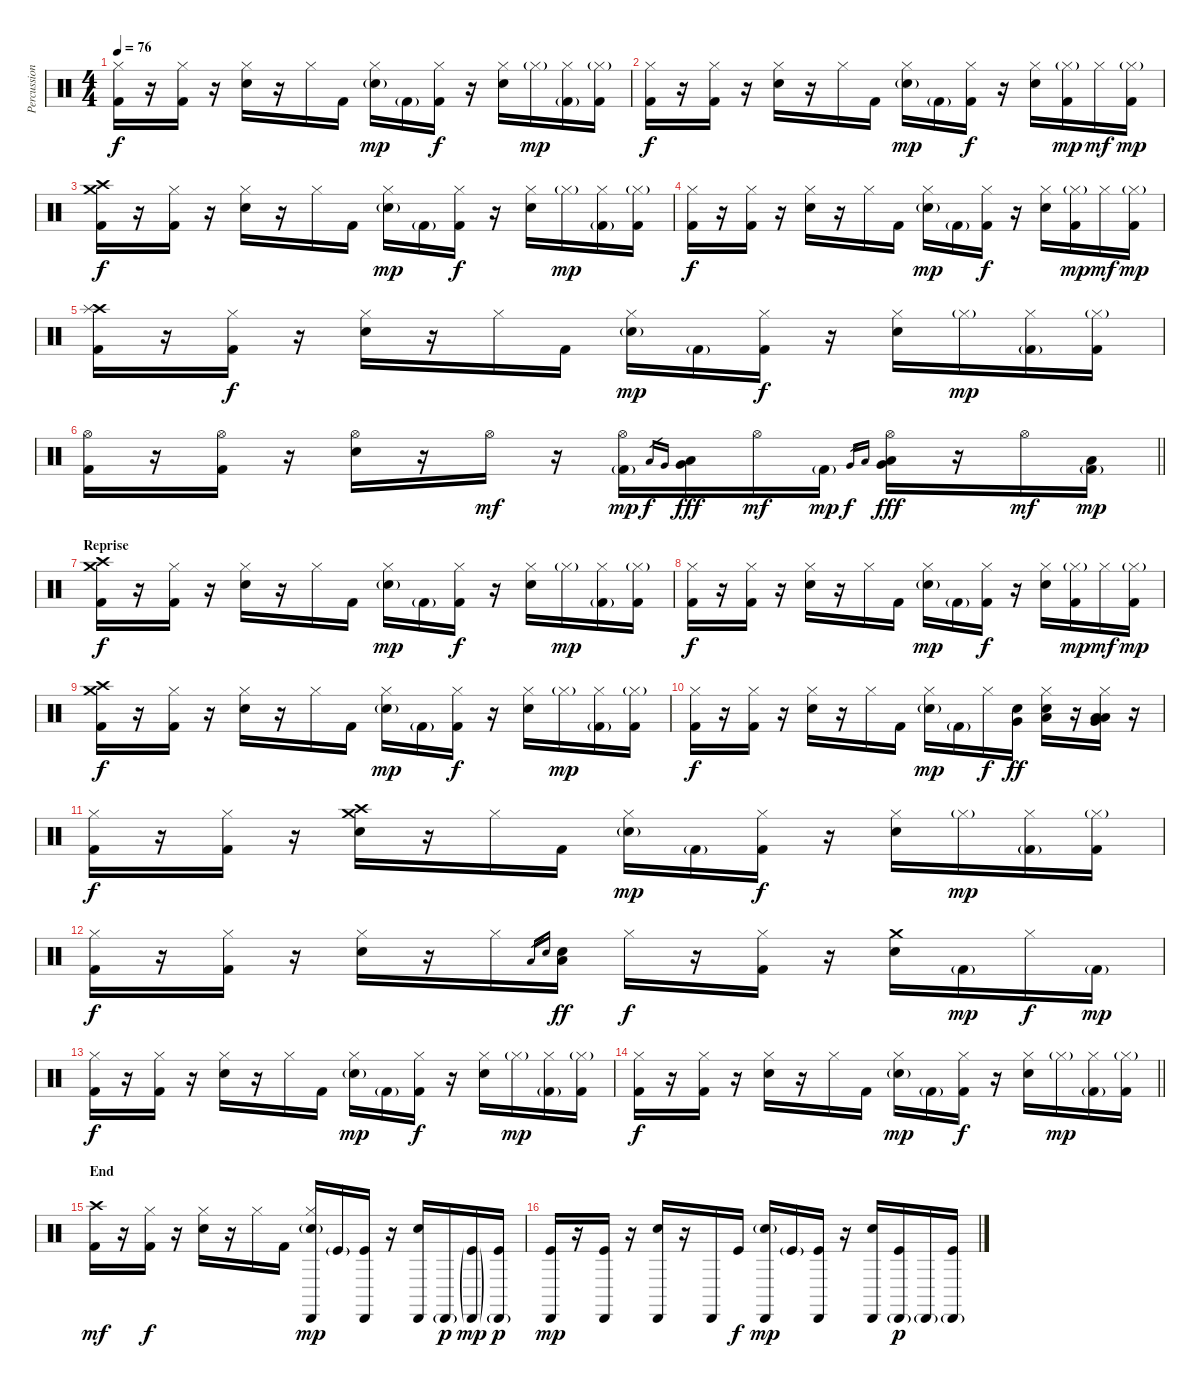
\track ("Percussion" "Percussion") {instrument percussion}
\staff {score}
\articulation defaults
\ts (4 4)
\tempo 76
\clef neutral
\ks c
("Hi-Hat (closed)" "Kick (hit) 2").16{dy f} r.16 ("Hi-Hat (closed)" "Kick (hit) 2").16 r.16 ("Hi-Hat (closed)" "Electric Snare (hit)").16 r.16 "Hi-Hat (closed)".16 "Kick (hit) 2".16 ("Hi-Hat (closed)" "Electric Snare (hit)"{g}).16{dy mp} "Kick (hit) 2"{g}.16 ("Hi-Hat (closed)" "Kick (hit) 2").16{dy f} r.16 ("Hi-Hat (closed)" "Electric Snare (hit)").16 "Hi-Hat (closed)"{g}.16{dy mp} ("Hi-Hat (closed)" "Kick (hit) 2"{g}).16 ("Hi-Hat (closed)"{g} "Kick (hit) 2").16 |
("Hi-Hat (closed)" "Kick (hit) 2").16{dy f} r.16 ("Hi-Hat (closed)" "Kick (hit) 2").16 r.16 ("Hi-Hat (closed)" "Electric Snare (hit)").16 r.16 "Hi-Hat (closed)".16 "Kick (hit) 2".16 ("Hi-Hat (closed)" "Electric Snare (hit)"{g}).16{dy mp} "Kick (hit) 2"{g}.16 ("Hi-Hat (closed)" "Kick (hit) 2").16{dy f} r.16 ("Hi-Hat (closed)" "Electric Snare (hit)").16 ("Hi-Hat (closed)"{g} "Kick (hit) 2").16{dy mp} "Hi-Hat (closed)".16{dy mf} ("Hi-Hat (closed)"{g} "Kick (hit) 2").16{dy mp} |
("Crash high (hit)" "Crash medium (hit)" "Kick (hit) 2").16{dy f} r.16 ("Hi-Hat (closed)" "Kick (hit) 2").16 r.16 ("Hi-Hat (closed)" "Electric Snare (hit)").16 r.16 "Hi-Hat (closed)".16 "Kick (hit) 2".16 ("Hi-Hat (closed)" "Electric Snare (hit)"{g}).16{dy mp} "Kick (hit) 2"{g}.16 ("Hi-Hat (closed)" "Kick (hit) 2").16{dy f} r.16 ("Hi-Hat (closed)" "Electric Snare (hit)").16 "Hi-Hat (closed)"{g}.16{dy mp} ("Hi-Hat (closed)" "Kick (hit) 2"{g}).16 ("Hi-Hat (closed)"{g} "Kick (hit) 2").16 |
("Hi-Hat (closed)" "Kick (hit) 2").16{dy f} r.16 ("Hi-Hat (closed)" "Kick (hit) 2").16 r.16 ("Hi-Hat (closed)" "Electric Snare (hit)").16 r.16 "Hi-Hat (closed)".16 "Kick (hit) 2".16 ("Hi-Hat (closed)" "Electric Snare (hit)"{g}).16{dy mp} "Kick (hit) 2"{g}.16 ("Hi-Hat (closed)" "Kick (hit) 2").16{dy f} r.16 ("Hi-Hat (closed)" "Electric Snare (hit)").16 ("Hi-Hat (closed)"{g} "Kick (hit) 2").16{dy mp} "Hi-Hat (closed)".16{dy mf} ("Hi-Hat (closed)"{g} "Kick (hit) 2").16{dy mp} |
("Crash high (hit)" "Splash (hit)" "Kick (hit) 2").16 r.16 ("Hi-Hat (closed)" "Kick (hit) 2").16{dy f} r.16 ("Hi-Hat (closed)" "Electric Snare (hit)").16 r.16 "Hi-Hat (closed)".16 "Kick (hit) 2".16 ("Hi-Hat (closed)" "Electric Snare (hit)"{g}).16{dy mp} "Kick (hit) 2"{g}.16 ("Hi-Hat (closed)" "Kick (hit) 2").16{dy f} r.16 ("Hi-Hat (closed)" "Electric Snare (hit)").16 "Hi-Hat (closed)"{g}.16{dy mp} ("Hi-Hat (closed)" "Kick (hit) 2"{g}).16 ("Hi-Hat (closed)"{g} "Kick (hit) 2").16 |
\barLineRight lightlight
("Hi-Hat (open)" "Kick (hit) 2").16 r.16 ("Hi-Hat (open)" "Kick (hit) 2").16 r.16 ("Hi-Hat (open)" "Electric Snare (hit)").16 r.16 "Hi-Hat (open)".16{dy mf} r.16 ("Hi-Hat (open)" "Kick (hit) 2"{g}).16{dy mp} "Low Tom (hit)".16{gr dy f} "Very Low Tom (hit)".16{gr} ("Low Tom (hit)" "Very Low Tom (hit)").16{dy fff} "Hi-Hat (open)".16{dy mf} "Kick (hit) 2"{g}.16{dy mp} "Very Low Tom (hit)".16{gr dy f} "Low Floor Tom (hit)".16{gr} ("Hi-Hat (open)" "Very Low Tom (hit)" "Low Floor Tom (hit)").16{dy fff} r.16 "Hi-Hat (open)".16{dy mf} ("Low Floor Tom (hit)" "Kick (hit) 2"{g}).16{dy mp} |
\section ("" "Reprise")
("Crash high (hit)" "Crash medium (hit)" "Kick (hit) 2").16{dy f} r.16 ("Hi-Hat (closed)" "Kick (hit) 2").16 r.16 ("Hi-Hat (closed)" "Electric Snare (hit)").16 r.16 "Hi-Hat (closed)".16 "Kick (hit) 2".16 ("Hi-Hat (closed)" "Electric Snare (hit)"{g}).16{dy mp} "Kick (hit) 2"{g}.16 ("Hi-Hat (closed)" "Kick (hit) 2").16{dy f} r.16 ("Hi-Hat (closed)" "Electric Snare (hit)").16 "Hi-Hat (closed)"{g}.16{dy mp} ("Hi-Hat (closed)" "Kick (hit) 2"{g}).16 ("Hi-Hat (closed)"{g} "Kick (hit) 2").16 |
("Hi-Hat (closed)" "Kick (hit) 2").16{dy f} r.16 ("Hi-Hat (closed)" "Kick (hit) 2").16 r.16 ("Hi-Hat (closed)" "Electric Snare (hit)").16 r.16 "Hi-Hat (closed)".16 "Kick (hit) 2".16 ("Hi-Hat (closed)" "Electric Snare (hit)"{g}).16{dy mp} "Kick (hit) 2"{g}.16 ("Hi-Hat (closed)" "Kick (hit) 2").16{dy f} r.16 ("Hi-Hat (closed)" "Electric Snare (hit)").16 ("Hi-Hat (closed)"{g} "Kick (hit) 2").16{dy mp} "Hi-Hat (closed)".16{dy mf} ("Hi-Hat (closed)"{g} "Kick (hit) 2").16{dy mp} |
("Crash high (hit)" "Crash medium (hit)" "Kick (hit) 2").16{dy f} r.16 ("Hi-Hat (closed)" "Kick (hit) 2").16 r.16 ("Hi-Hat (closed)" "Electric Snare (hit)").16 r.16 "Hi-Hat (closed)".16 "Kick (hit) 2".16 ("Hi-Hat (closed)" "Electric Snare (hit)"{g}).16{dy mp} "Kick (hit) 2"{g}.16 ("Hi-Hat (closed)" "Kick (hit) 2").16{dy f} r.16 ("Hi-Hat (closed)" "Electric Snare (hit)").16 "Hi-Hat (closed)"{g}.16{dy mp} ("Hi-Hat (closed)" "Kick (hit) 2"{g}).16 ("Hi-Hat (closed)"{g} "Kick (hit) 2").16 |
("Hi-Hat (closed)" "Kick (hit) 2").16{dy f} r.16 ("Hi-Hat (closed)" "Kick (hit) 2").16 r.16 ("Hi-Hat (closed)" "Electric Snare (hit)").16 r.16 "Hi-Hat (closed)".16 "Kick (hit) 2".16 ("Hi-Hat (closed)" "Electric Snare (hit)"{g}).16{dy mp} "Kick (hit) 2"{g}.16 "Hi-Hat (closed)".16{dy f} ("Electric Snare (hit)" "Very Low Tom (hit)").16{dy ff} ("Hi-Hat (closed)" "Electric Snare (hit)" "Low Tom (hit)").16 r.16 ("Hi-Hat (closed)" "Low Tom (hit)" "Very Low Tom (hit)" "Low Floor Tom (hit)").16 r.16 |
("Hi-Hat (closed)" "Kick (hit) 2").16{dy f} r.16 ("Hi-Hat (closed)" "Kick (hit) 2").16 r.16 ("Crash high (hit)" "Crash medium (hit)" "Electric Snare (hit)").16 r.16 "Hi-Hat (closed)".16 "Kick (hit) 2".16 ("Hi-Hat (closed)" "Electric Snare (hit)"{g}).16{dy mp} "Kick (hit) 2"{g}.16 ("Hi-Hat (closed)" "Kick (hit) 2").16{dy f} r.16 ("Hi-Hat (closed)" "Electric Snare (hit)").16 "Hi-Hat (closed)"{g}.16{dy mp} ("Hi-Hat (closed)" "Kick (hit) 2"{g}).16 ("Hi-Hat (closed)"{g} "Kick (hit) 2").16 |
("Hi-Hat (closed)" "Kick (hit) 2").16{dy f} r.16 ("Hi-Hat (closed)" "Kick (hit) 2").16 r.16 ("Hi-Hat (closed)" "Electric Snare (hit)").16 r.16 "Hi-Hat (closed)".16 "Low Tom (hit)".16{gr} "Electric Snare (hit)".16{gr} ("Low Tom (hit)" "Electric Snare (hit)").16{dy ff} "Hi-Hat (closed)".16{dy f} r.16 ("Hi-Hat (closed)" "Kick (hit) 2").16 r.16 ("Crash medium (hit)" "Electric Snare (hit)").16 "Kick (hit) 2"{g}.16{dy mp} "Hi-Hat (closed)".16{dy f} "Kick (hit) 2"{g}.16{dy mp} |
("Hi-Hat (closed)" "Kick (hit) 2").16{dy f} r.16 ("Hi-Hat (closed)" "Kick (hit) 2").16 r.16 ("Hi-Hat (closed)" "Electric Snare (hit)").16 r.16 "Hi-Hat (closed)".16 "Kick (hit) 2".16 ("Hi-Hat (closed)" "Electric Snare (hit)"{g}).16{dy mp} "Kick (hit) 2"{g}.16 ("Hi-Hat (closed)" "Kick (hit) 2").16{dy f} r.16 ("Hi-Hat (closed)" "Electric Snare (hit)").16 "Hi-Hat (closed)"{g}.16{dy mp} ("Hi-Hat (closed)" "Kick (hit) 2"{g}).16 ("Hi-Hat (closed)"{g} "Kick (hit) 2").16 |
\barLineRight lightlight
("Hi-Hat (closed)" "Kick (hit) 2").16{dy f} r.16 ("Hi-Hat (closed)" "Kick (hit) 2").16 r.16 ("Hi-Hat (closed)" "Electric Snare (hit)").16 r.16 "Hi-Hat (closed)".16 "Kick (hit) 2".16 ("Hi-Hat (closed)" "Electric Snare (hit)"{g}).16{dy mp} "Kick (hit) 2"{g}.16 ("Hi-Hat (closed)" "Kick (hit) 2").16{dy f} r.16 ("Hi-Hat (closed)" "Electric Snare (hit)").16 "Hi-Hat (closed)"{g}.16{dy mp} ("Hi-Hat (closed)" "Kick (hit) 2"{g}).16 ("Hi-Hat (closed)"{g} "Kick (hit) 2").16 |
\section ("" "End")
("Crash high (hit)" "Kick (hit) 2").16{dy mf} r.16 ("Hi-Hat (closed)" "Kick (hit) 2").16{dy f} r.16 ("Hi-Hat (closed)" "Electric Snare (hit)").16 r.16 "Hi-Hat (closed)".16 "Kick (hit) 2".16 ("Cabasa (hit)" "Hi-Hat (closed)" "Electric Snare (hit)"{g}).16{dy mp} "Kick (hit)"{g}.16 ("Cabasa (hit)" "Kick (hit)").16 r.16 ("Cabasa (hit)" "Electric Snare (hit)").16 "Cabasa (hit)"{g}.16{dy p} ("Cabasa (hit)"{g} "Kick (hit)"{g}).16{dy mp} ("Cabasa (hit)"{g} "Kick (hit)").16{dy p} |
("Cabasa (hit)" "Kick (hit)").16{dy mp} r.16 ("Cabasa (hit)" "Kick (hit)").16 r.16 ("Cabasa (hit)" "Electric Snare (hit)").16 r.16 "Cabasa (hit)".16 "Kick (hit)".16{dy f} ("Cabasa (hit)" "Electric Snare (hit)"{g}).16{dy mp} "Kick (hit)"{g}.16 ("Cabasa (hit)" "Kick (hit)").16 r.16 ("Cabasa (hit)" "Electric Snare (hit)").16 ("Cabasa (hit)"{g} "Kick (hit)").16{dy p} "Cabasa (hit)"{g}.16 ("Cabasa (hit)"{g} "Kick (hit)").16
